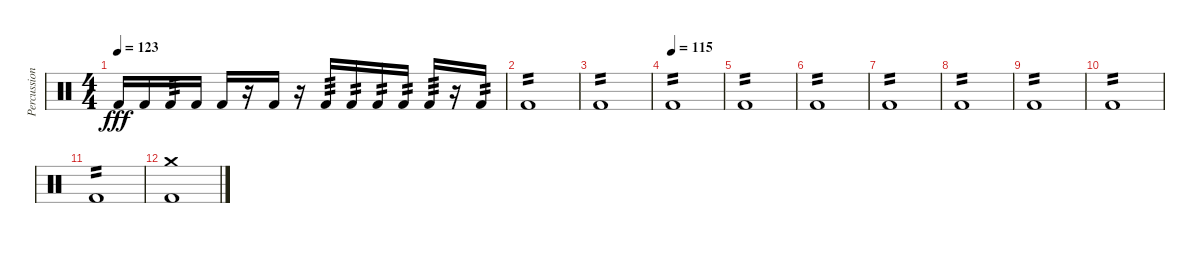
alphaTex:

\track ("Percussion" "Percussion") {solo instrument percussion}
\staff {score}
\articulation defaults
\ts (4 4)
\tempo 123
\clef neutral
\ks c "Kick (hit) 2".16{dy fff} "Kick (hit) 2".16 "Kick (hit) 2".16{tp 3} "Kick (hit) 2".16 "Kick (hit) 2".16
r.16 "Kick (hit) 2".16 r.16 "Kick (hit) 2".16{tp 3} "Kick (hit) 2".16{tp 2} "Kick (hit) 2".16{tp 2} "Kick (hit) 2".16{tp 2} "Kick (hit) 2".16{tp 3} r.16 "Kick (hit) 2".16{tp 2} |
"Kick (hit) 2".1{tp 2} |
"Kick (hit) 2".1{tp 2} |
\tempo (115)
"Kick (hit) 2".1{tp 2} |
"Kick (hit) 2".1{tp 2} |
"Kick (hit) 2".1{tp 2} |
"Kick (hit) 2".1{tp 2} |
"Kick (hit) 2".1{tp 2} |
"Kick (hit) 2".1{tp 2} |
"Kick (hit) 2".1{tp 2} |
"Kick (hit) 2".1{tp 2} |
("Kick (hit) 2" "Crash medium (hit)").1
